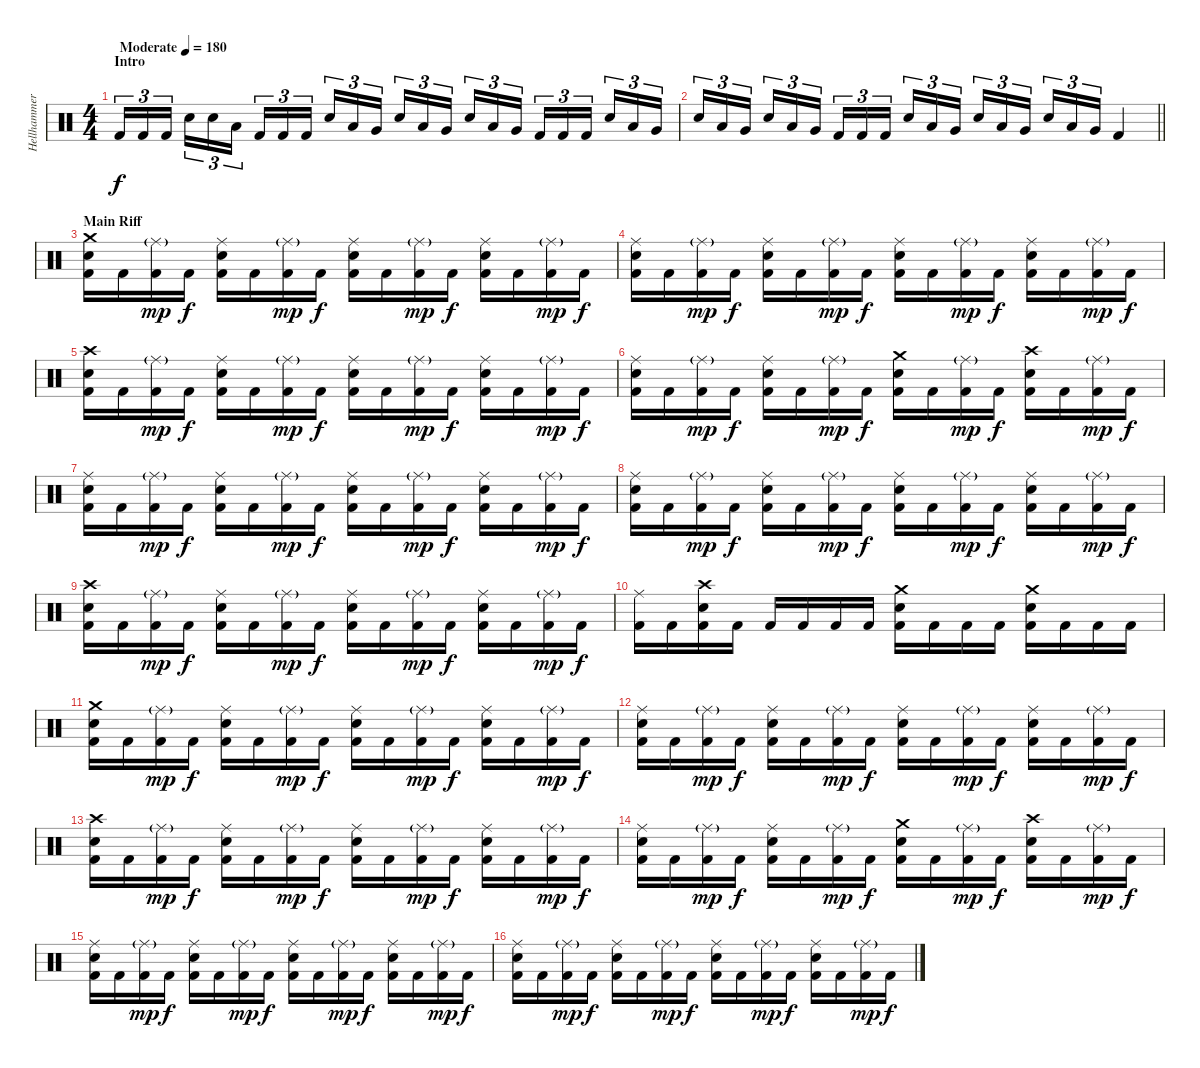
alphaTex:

\track ("Hellhammer" "Hellhammer") {instrument percussion}
\staff {score}
\articulation defaults
\ts (4 4)
\section ("" "Intro")
\tempo (180 "Moderate")
\clef neutral
\ks c "Kick (hit) 2".16{tu (3 2) dy f} "Kick (hit) 2".16{tu (3 2)} "Kick (hit) 2".16{tu (3 2) beam splitsecondary} "Electric Snare (hit)".16{tu (3 2)} "Electric Snare (hit)".16{tu (3 2)} "Low Floor Tom (hit)".16{tu (3 2)} "Kick (hit) 2".16{tu (3 2)} "Kick (hit) 2".16{tu (3 2)} "Kick (hit) 2".16{tu (3 2) beam splitsecondary} "Electric Snare (hit)".16{tu (3 2)} "Low Tom (hit)".16{tu (3 2)} "Very Low Tom (hit)".16{tu (3 2)} "Electric Snare (hit)".16{tu (3 2)} "Low Tom (hit)".16{tu (3 2)} "Very Low Tom (hit)".16{tu (3 2) beam splitsecondary} "Electric Snare (hit)".16{tu (3 2)} "Low Tom (hit)".16{tu (3 2)} "Very Low Tom (hit)".16{tu (3 2)} "Kick (hit) 2".16{tu (3 2)} "Kick (hit) 2".16{tu (3 2)} "Kick (hit) 2".16{tu (3 2) beam splitsecondary} "Electric Snare (hit)".16{tu (3 2)} "Low Tom (hit)".16{tu (3 2)} "Very Low Tom (hit)".16{tu (3 2)}
|
\barLineRight lightlight "Electric Snare (hit)".16{tu (3 2)} "Low Tom (hit)".16{tu (3 2)} "Very Low Tom (hit)".16{tu (3 2) beam splitsecondary} "Electric Snare (hit)".16{tu (3 2)} "Low Tom (hit)".16{tu (3 2)} "Very Low Tom (hit)".16{tu (3 2)} "Kick (hit) 2".16{tu (3 2)} "Kick (hit) 2".16{tu (3 2)} "Kick (hit) 2".16{tu (3 2) beam splitsecondary} "Electric Snare (hit)".16{tu (3 2)} "Low Tom (hit)".16{tu (3 2)} "Very Low Tom (hit)".16{tu (3 2)} "Electric Snare (hit)".16{tu (3 2)} "Low Tom (hit)".16{tu (3 2)} "Very Low Tom (hit)".16{tu (3 2) beam splitsecondary} "Electric Snare (hit)".16{tu (3 2)} "Low Tom (hit)".16{tu (3 2)} "Very Low Tom (hit)".16{tu (3 2)} "Kick (hit) 2".4
|
\section ("" "Main Riff")
("Crash medium (hit)" "Electric Snare (hit)" "Kick (hit) 2").16 "Kick (hit) 2".16 ("Ride (middle)"{g} "Kick (hit) 2").16{dy mp} "Kick (hit) 2".16{dy f} ("Ride (middle)" "Electric Snare (hit)" "Kick (hit) 2").16 "Kick (hit) 2".16 ("Ride (middle)"{g} "Kick (hit) 2").16{dy mp} "Kick (hit) 2".16{dy f} ("Ride (middle)" "Electric Snare (hit)" "Kick (hit) 2").16 "Kick (hit) 2".16 ("Ride (middle)"{g} "Kick (hit) 2").16{dy mp} "Kick (hit) 2".16{dy f} ("Ride (middle)" "Electric Snare (hit)" "Kick (hit) 2").16 "Kick (hit) 2".16 ("Ride (middle)"{g} "Kick (hit) 2").16{dy mp} "Kick (hit) 2".16{dy f} |
("Ride (middle)" "Electric Snare (hit)" "Kick (hit) 2").16 "Kick (hit) 2".16 ("Ride (middle)"{g} "Kick (hit) 2").16{dy mp} "Kick (hit) 2".16{dy f} ("Ride (middle)" "Electric Snare (hit)" "Kick (hit) 2").16 "Kick (hit) 2".16 ("Ride (middle)"{g} "Kick (hit) 2").16{dy mp} "Kick (hit) 2".16{dy f} ("Ride (middle)" "Electric Snare (hit)" "Kick (hit) 2").16 "Kick (hit) 2".16 ("Ride (middle)"{g} "Kick (hit) 2").16{dy mp} "Kick (hit) 2".16{dy f} ("Ride (middle)" "Electric Snare (hit)" "Kick (hit) 2").16 "Kick (hit) 2".16 ("Ride (middle)"{g} "Kick (hit) 2").16{dy mp} "Kick (hit) 2".16{dy f} |
("Crash high (hit)" "Electric Snare (hit)" "Kick (hit) 2").16 "Kick (hit) 2".16 ("Ride (middle)"{g} "Kick (hit) 2").16{dy mp} "Kick (hit) 2".16{dy f} ("Ride (middle)" "Electric Snare (hit)" "Kick (hit) 2").16 "Kick (hit) 2".16 ("Ride (middle)"{g} "Kick (hit) 2").16{dy mp} "Kick (hit) 2".16{dy f} ("Ride (middle)" "Electric Snare (hit)" "Kick (hit) 2").16 "Kick (hit) 2".16 ("Ride (middle)"{g} "Kick (hit) 2").16{dy mp} "Kick (hit) 2".16{dy f} ("Ride (middle)" "Electric Snare (hit)" "Kick (hit) 2").16 "Kick (hit) 2".16 ("Ride (middle)"{g} "Kick (hit) 2").16{dy mp} "Kick (hit) 2".16{dy f} |
("Ride (middle)" "Electric Snare (hit)" "Kick (hit) 2").16 "Kick (hit) 2".16 ("Ride (middle)"{g} "Kick (hit) 2").16{dy mp} "Kick (hit) 2".16{dy f} ("Ride (middle)" "Electric Snare (hit)" "Kick (hit) 2").16 "Kick (hit) 2".16 ("Ride (middle)"{g} "Kick (hit) 2").16{dy mp} "Kick (hit) 2".16{dy f} ("Crash medium (hit)" "Electric Snare (hit)" "Kick (hit) 2").16 "Kick (hit) 2".16 ("Ride (middle)"{g} "Kick (hit) 2").16{dy mp} "Kick (hit) 2".16{dy f} ("Crash high (hit)" "Electric Snare (hit)" "Kick (hit) 2").16 "Kick (hit) 2".16 ("Ride (middle)"{g} "Kick (hit) 2").16{dy mp} "Kick (hit) 2".16{dy f} |
("Ride (middle)" "Electric Snare (hit)" "Kick (hit) 2").16 "Kick (hit) 2".16 ("Ride (middle)"{g} "Kick (hit) 2").16{dy mp} "Kick (hit) 2".16{dy f} ("Ride (middle)" "Electric Snare (hit)" "Kick (hit) 2").16 "Kick (hit) 2".16 ("Ride (middle)"{g} "Kick (hit) 2").16{dy mp} "Kick (hit) 2".16{dy f} ("Ride (middle)" "Electric Snare (hit)" "Kick (hit) 2").16 "Kick (hit) 2".16 ("Ride (middle)"{g} "Kick (hit) 2").16{dy mp} "Kick (hit) 2".16{dy f} ("Ride (middle)" "Electric Snare (hit)" "Kick (hit) 2").16 "Kick (hit) 2".16 ("Ride (middle)"{g} "Kick (hit) 2").16{dy mp} "Kick (hit) 2".16{dy f} |
("Ride (middle)" "Electric Snare (hit)" "Kick (hit) 2").16 "Kick (hit) 2".16 ("Ride (middle)"{g} "Kick (hit) 2").16{dy mp} "Kick (hit) 2".16{dy f} ("Ride (middle)" "Electric Snare (hit)" "Kick (hit) 2").16 "Kick (hit) 2".16 ("Ride (middle)"{g} "Kick (hit) 2").16{dy mp} "Kick (hit) 2".16{dy f} ("Ride (middle)" "Electric Snare (hit)" "Kick (hit) 2").16 "Kick (hit) 2".16 ("Ride (middle)"{g} "Kick (hit) 2").16{dy mp} "Kick (hit) 2".16{dy f} ("Ride (middle)" "Electric Snare (hit)" "Kick (hit) 2").16 "Kick (hit) 2".16 ("Ride (middle)"{g} "Kick (hit) 2").16{dy mp} "Kick (hit) 2".16{dy f} |
("Crash high (hit)" "Electric Snare (hit)" "Kick (hit) 2").16 "Kick (hit) 2".16 ("Ride (middle)"{g} "Kick (hit) 2").16{dy mp} "Kick (hit) 2".16{dy f} ("Ride (middle)" "Electric Snare (hit)" "Kick (hit) 2").16 "Kick (hit) 2".16 ("Ride (middle)"{g} "Kick (hit) 2").16{dy mp} "Kick (hit) 2".16{dy f} ("Ride (middle)" "Electric Snare (hit)" "Kick (hit) 2").16 "Kick (hit) 2".16 ("Ride (middle)"{g} "Kick (hit) 2").16{dy mp} "Kick (hit) 2".16{dy f} ("Ride (middle)" "Electric Snare (hit)" "Kick (hit) 2").16 "Kick (hit) 2".16 ("Ride (middle)"{g} "Kick (hit) 2").16{dy mp} "Kick (hit) 2".16{dy f} |
("Ride (middle)" "Kick (hit) 2").16 "Kick (hit) 2".16 ("Crash high (hit)" "Electric Snare (hit)" "Kick (hit) 2").16 "Kick (hit) 2".16 "Kick (hit) 2".16 "Kick (hit) 2".16 "Kick (hit) 2".16 "Kick (hit) 2".16 ("Crash medium (hit)" "Electric Snare (hit)" "Kick (hit) 2").16 "Kick (hit) 2".16 "Kick (hit) 2".16 "Kick (hit) 2".16 ("Crash medium (hit)" "Electric Snare (hit)" "Kick (hit) 2").16 "Kick (hit) 2".16 "Kick (hit) 2".16 "Kick (hit) 2".16 |
("Crash medium (hit)" "Electric Snare (hit)" "Kick (hit) 2").16 "Kick (hit) 2".16 ("Ride (middle)"{g} "Kick (hit) 2").16{dy mp} "Kick (hit) 2".16{dy f} ("Ride (middle)" "Electric Snare (hit)" "Kick (hit) 2").16 "Kick (hit) 2".16 ("Ride (middle)"{g} "Kick (hit) 2").16{dy mp} "Kick (hit) 2".16{dy f} ("Ride (middle)" "Electric Snare (hit)" "Kick (hit) 2").16 "Kick (hit) 2".16 ("Ride (middle)"{g} "Kick (hit) 2").16{dy mp} "Kick (hit) 2".16{dy f} ("Ride (middle)" "Electric Snare (hit)" "Kick (hit) 2").16 "Kick (hit) 2".16 ("Ride (middle)"{g} "Kick (hit) 2").16{dy mp} "Kick (hit) 2".16{dy f} |
("Ride (middle)" "Electric Snare (hit)" "Kick (hit) 2").16 "Kick (hit) 2".16 ("Ride (middle)"{g} "Kick (hit) 2").16{dy mp} "Kick (hit) 2".16{dy f} ("Ride (middle)" "Electric Snare (hit)" "Kick (hit) 2").16 "Kick (hit) 2".16 ("Ride (middle)"{g} "Kick (hit) 2").16{dy mp} "Kick (hit) 2".16{dy f} ("Ride (middle)" "Electric Snare (hit)" "Kick (hit) 2").16 "Kick (hit) 2".16 ("Ride (middle)"{g} "Kick (hit) 2").16{dy mp} "Kick (hit) 2".16{dy f} ("Ride (middle)" "Electric Snare (hit)" "Kick (hit) 2").16 "Kick (hit) 2".16 ("Ride (middle)"{g} "Kick (hit) 2").16{dy mp} "Kick (hit) 2".16{dy f} |
("Crash high (hit)" "Electric Snare (hit)" "Kick (hit) 2").16 "Kick (hit) 2".16 ("Ride (middle)"{g} "Kick (hit) 2").16{dy mp} "Kick (hit) 2".16{dy f} ("Ride (middle)" "Electric Snare (hit)" "Kick (hit) 2").16 "Kick (hit) 2".16 ("Ride (middle)"{g} "Kick (hit) 2").16{dy mp} "Kick (hit) 2".16{dy f} ("Ride (middle)" "Electric Snare (hit)" "Kick (hit) 2").16 "Kick (hit) 2".16 ("Ride (middle)"{g} "Kick (hit) 2").16{dy mp} "Kick (hit) 2".16{dy f} ("Ride (middle)" "Electric Snare (hit)" "Kick (hit) 2").16 "Kick (hit) 2".16 ("Ride (middle)"{g} "Kick (hit) 2").16{dy mp} "Kick (hit) 2".16{dy f} |
("Ride (middle)" "Electric Snare (hit)" "Kick (hit) 2").16 "Kick (hit) 2".16 ("Ride (middle)"{g} "Kick (hit) 2").16{dy mp} "Kick (hit) 2".16{dy f} ("Ride (middle)" "Electric Snare (hit)" "Kick (hit) 2").16 "Kick (hit) 2".16 ("Ride (middle)"{g} "Kick (hit) 2").16{dy mp} "Kick (hit) 2".16{dy f} ("Crash medium (hit)" "Electric Snare (hit)" "Kick (hit) 2").16 "Kick (hit) 2".16 ("Ride (middle)"{g} "Kick (hit) 2").16{dy mp} "Kick (hit) 2".16{dy f} ("Crash high (hit)" "Electric Snare (hit)" "Kick (hit) 2").16 "Kick (hit) 2".16 ("Ride (middle)"{g} "Kick (hit) 2").16{dy mp} "Kick (hit) 2".16{dy f} |
("Ride (middle)" "Electric Snare (hit)" "Kick (hit) 2").16 "Kick (hit) 2".16 ("Ride (middle)"{g} "Kick (hit) 2").16{dy mp} "Kick (hit) 2".16{dy f} ("Ride (middle)" "Electric Snare (hit)" "Kick (hit) 2").16 "Kick (hit) 2".16 ("Ride (middle)"{g} "Kick (hit) 2").16{dy mp} "Kick (hit) 2".16{dy f} ("Ride (middle)" "Electric Snare (hit)" "Kick (hit) 2").16 "Kick (hit) 2".16 ("Ride (middle)"{g} "Kick (hit) 2").16{dy mp} "Kick (hit) 2".16{dy f} ("Ride (middle)" "Electric Snare (hit)" "Kick (hit) 2").16 "Kick (hit) 2".16 ("Ride (middle)"{g} "Kick (hit) 2").16{dy mp} "Kick (hit) 2".16{dy f} |
("Ride (middle)" "Electric Snare (hit)" "Kick (hit) 2").16 "Kick (hit) 2".16 ("Ride (middle)"{g} "Kick (hit) 2").16{dy mp} "Kick (hit) 2".16{dy f} ("Ride (middle)" "Electric Snare (hit)" "Kick (hit) 2").16 "Kick (hit) 2".16 ("Ride (middle)"{g} "Kick (hit) 2").16{dy mp} "Kick (hit) 2".16{dy f} ("Ride (middle)" "Electric Snare (hit)" "Kick (hit) 2").16 "Kick (hit) 2".16 ("Ride (middle)"{g} "Kick (hit) 2").16{dy mp} "Kick (hit) 2".16{dy f} ("Ride (middle)" "Electric Snare (hit)" "Kick (hit) 2").16 "Kick (hit) 2".16 ("Ride (middle)"{g} "Kick (hit) 2").16{dy mp} "Kick (hit) 2".16{dy f}
